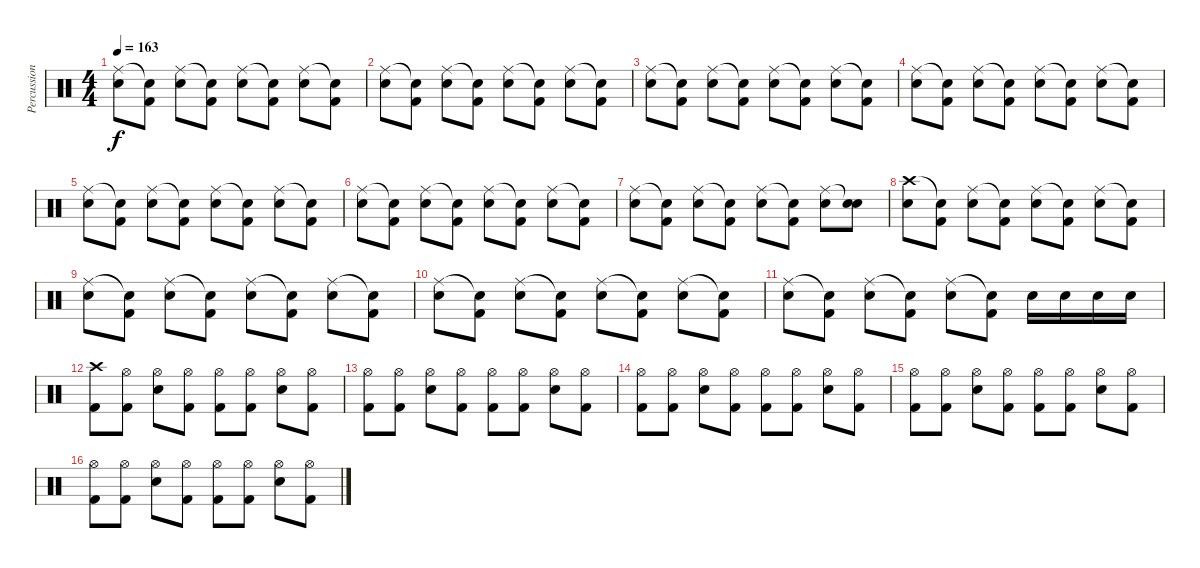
\track ("Percussion" "Percussion") {instrument percussion}
\staff {score}
\articulation defaults
\ts (4 4)
\tempo 163
\clef neutral
\ks c
("Ride (middle)" "Snare (hit) 2").8{dy f} ("Snare (hit)"{t} "Kick (hit) 2").8 ("Ride (middle)" "Snare (hit) 2").8 ("Snare (hit)"{t} "Kick (hit) 2").8 ("Ride (middle)" "Snare (hit) 2").8 ("Snare (hit)"{t} "Kick (hit) 2").8 ("Ride (middle)" "Snare (hit) 2").8 ("Snare (hit)"{t} "Kick (hit) 2").8 |
("Ride (middle)" "Snare (hit) 2").8 ("Snare (hit)"{t} "Kick (hit) 2").8 ("Ride (middle)" "Snare (hit) 2").8 ("Snare (hit)"{t} "Kick (hit) 2").8 ("Ride (middle)" "Snare (hit) 2").8 ("Snare (hit)"{t} "Kick (hit) 2").8 ("Ride (middle)" "Snare (hit) 2").8 ("Snare (hit)"{t} "Kick (hit) 2").8 |
("Ride (middle)" "Snare (hit) 2").8 ("Snare (hit)"{t} "Kick (hit) 2").8 ("Ride (middle)" "Snare (hit) 2").8 ("Snare (hit)"{t} "Kick (hit) 2").8 ("Ride (middle)" "Snare (hit) 2").8 ("Snare (hit)"{t} "Kick (hit) 2").8 ("Ride (middle)" "Snare (hit) 2").8 ("Snare (hit)"{t} "Kick (hit) 2").8 |
("Ride (middle)" "Snare (hit) 2").8 ("Snare (hit)"{t} "Kick (hit) 2").8 ("Ride (middle)" "Snare (hit) 2").8 ("Snare (hit)"{t} "Kick (hit) 2").8 ("Ride (middle)" "Snare (hit) 2").8 ("Snare (hit)"{t} "Kick (hit) 2").8 ("Ride (middle)" "Snare (hit) 2").8 ("Snare (hit)"{t} "Kick (hit) 2").8 |
("Ride (middle)" "Snare (hit) 2").8 ("Snare (hit)"{t} "Kick (hit) 2").8 ("Ride (middle)" "Snare (hit) 2").8 ("Snare (hit)"{t} "Kick (hit) 2").8 ("Ride (middle)" "Snare (hit) 2").8 ("Snare (hit)"{t} "Kick (hit) 2").8 ("Ride (middle)" "Snare (hit) 2").8 ("Snare (hit)"{t} "Kick (hit) 2").8 |
("Ride (middle)" "Snare (hit) 2").8 ("Snare (hit)"{t} "Kick (hit) 2").8 ("Ride (middle)" "Snare (hit) 2").8 ("Snare (hit)"{t} "Kick (hit) 2").8 ("Ride (middle)" "Snare (hit) 2").8 ("Snare (hit)"{t} "Kick (hit) 2").8 ("Ride (middle)" "Snare (hit) 2").8 ("Snare (hit)"{t} "Kick (hit) 2").8 |
("Ride (middle)" "Snare (hit) 2").8 ("Snare (hit)"{t} "Kick (hit) 2").8 ("Ride (middle)" "Snare (hit) 2").8 ("Snare (hit)"{t} "Kick (hit) 2").8 ("Ride (middle)" "Snare (hit) 2").8 ("Snare (hit)"{t} "Kick (hit) 2").8 ("Ride (middle)" "Snare (hit) 2").8 ("Snare (hit)"{t} "Snare (hit) 2").8 |
("Crash high (hit)" "Snare (hit) 2").8 ("Snare (hit)"{t} "Kick (hit) 2").8 ("Ride (middle)" "Snare (hit) 2").8 ("Snare (hit)"{t} "Kick (hit) 2").8 ("Ride (middle)" "Snare (hit) 2").8 ("Snare (hit)"{t} "Kick (hit) 2").8 ("Ride (middle)" "Snare (hit) 2").8 ("Snare (hit)"{t} "Kick (hit) 2").8 |
("Ride (middle)" "Snare (hit) 2").8 ("Snare (hit)"{t} "Kick (hit) 2").8 ("Ride (middle)" "Snare (hit) 2").8 ("Snare (hit)"{t} "Kick (hit) 2").8 ("Ride (middle)" "Snare (hit) 2").8 ("Snare (hit)"{t} "Kick (hit) 2").8 ("Ride (middle)" "Snare (hit) 2").8 ("Snare (hit)"{t} "Kick (hit) 2").8 |
("Ride (middle)" "Snare (hit) 2").8 ("Snare (hit)"{t} "Kick (hit) 2").8 ("Ride (middle)" "Snare (hit) 2").8 ("Snare (hit)"{t} "Kick (hit) 2").8 ("Ride (middle)" "Snare (hit) 2").8 ("Snare (hit)"{t} "Kick (hit) 2").8 ("Ride (middle)" "Snare (hit) 2").8 ("Snare (hit)"{t} "Kick (hit) 2").8 |
("Ride (middle)" "Snare (hit) 2").8 ("Snare (hit)"{t} "Kick (hit) 2").8 ("Ride (middle)" "Snare (hit) 2").8 ("Snare (hit)"{t} "Kick (hit) 2").8 ("Ride (middle)" "Snare (hit) 2").8 ("Snare (hit)"{t} "Kick (hit) 2").8 "Snare (hit) 2".16 "Snare (hit) 2".16 "Snare (hit) 2".16 "Snare (hit) 2".16 |
("Crash high (hit)" "Kick (hit) 2").8 ("Hi-Hat (open)" "Kick (hit) 2").8 ("Hi-Hat (open)" "Snare (hit) 2").8 ("Hi-Hat (open)" "Kick (hit) 2").8 ("Hi-Hat (open)" "Kick (hit) 2").8 ("Hi-Hat (open)" "Kick (hit) 2").8 ("Hi-Hat (open)" "Snare (hit) 2").8 ("Hi-Hat (open)" "Kick (hit) 2").8 |
("Hi-Hat (open)" "Kick (hit) 2").8 ("Hi-Hat (open)" "Kick (hit) 2").8 ("Hi-Hat (open)" "Snare (hit) 2").8 ("Hi-Hat (open)" "Kick (hit) 2").8 ("Hi-Hat (open)" "Kick (hit) 2").8 ("Hi-Hat (open)" "Kick (hit) 2").8 ("Hi-Hat (open)" "Snare (hit) 2").8 ("Hi-Hat (open)" "Kick (hit) 2").8 |
("Hi-Hat (open)" "Kick (hit) 2").8 ("Hi-Hat (open)" "Kick (hit) 2").8 ("Hi-Hat (open)" "Snare (hit) 2").8 ("Hi-Hat (open)" "Kick (hit) 2").8 ("Hi-Hat (open)" "Kick (hit) 2").8 ("Hi-Hat (open)" "Kick (hit) 2").8 ("Hi-Hat (open)" "Snare (hit) 2").8 ("Hi-Hat (open)" "Kick (hit) 2").8 |
("Hi-Hat (open)" "Kick (hit) 2").8 ("Hi-Hat (open)" "Kick (hit) 2").8 ("Hi-Hat (open)" "Snare (hit) 2").8 ("Hi-Hat (open)" "Kick (hit) 2").8 ("Hi-Hat (open)" "Kick (hit) 2").8 ("Hi-Hat (open)" "Kick (hit) 2").8 ("Hi-Hat (open)" "Snare (hit) 2").8 ("Hi-Hat (open)" "Kick (hit) 2").8 |
("Hi-Hat (open)" "Kick (hit) 2").8 ("Hi-Hat (open)" "Kick (hit) 2").8 ("Hi-Hat (open)" "Snare (hit) 2").8 ("Hi-Hat (open)" "Kick (hit) 2").8 ("Hi-Hat (open)" "Kick (hit) 2").8 ("Hi-Hat (open)" "Kick (hit) 2").8 ("Hi-Hat (open)" "Snare (hit) 2").8 ("Hi-Hat (open)" "Kick (hit) 2").8
